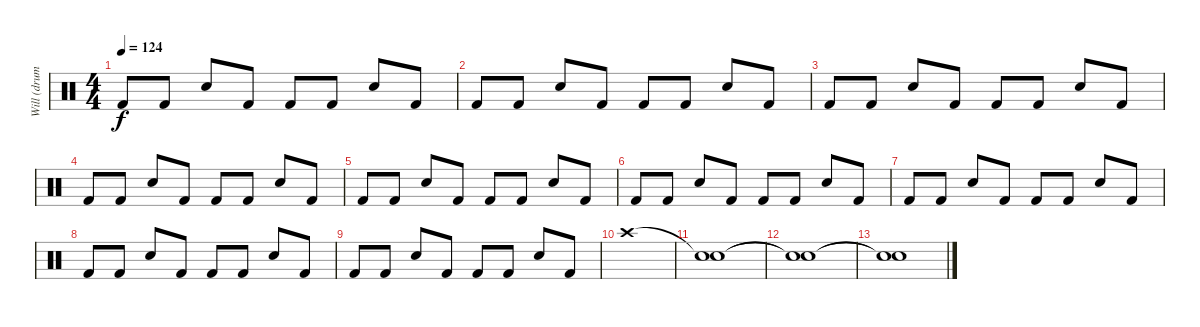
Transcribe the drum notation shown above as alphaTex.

\track ("Will (drums)" "Will (drum") {instrument percussion}
\staff {score}
\articulation defaults
\ts (4 4)
\tempo 124
\clef neutral
\ks c "Kick (hit) 2".8{dy f} "Kick (hit) 2".8 "Snare (hit) 2".8 "Kick (hit) 2".8 "Kick (hit) 2".8 "Kick (hit) 2".8 "Snare (hit) 2".8 "Kick (hit) 2".8
|
"Kick (hit) 2".8 "Kick (hit) 2".8 "Snare (hit) 2".8 "Kick (hit) 2".8 "Kick (hit) 2".8 "Kick (hit) 2".8 "Snare (hit) 2".8 "Kick (hit) 2".8 |
"Kick (hit) 2".8 "Kick (hit) 2".8 "Snare (hit) 2".8 "Kick (hit) 2".8 "Kick (hit) 2".8 "Kick (hit) 2".8 "Snare (hit) 2".8 "Kick (hit) 2".8 |
"Kick (hit) 2".8 "Kick (hit) 2".8 "Snare (hit) 2".8 "Kick (hit) 2".8 "Kick (hit) 2".8 "Kick (hit) 2".8 "Snare (hit) 2".8 "Kick (hit) 2".8 |
"Kick (hit) 2".8 "Kick (hit) 2".8 "Snare (hit) 2".8 "Kick (hit) 2".8 "Kick (hit) 2".8 "Kick (hit) 2".8 "Snare (hit) 2".8 "Kick (hit) 2".8 |
"Kick (hit) 2".8 "Kick (hit) 2".8 "Snare (hit) 2".8 "Kick (hit) 2".8 "Kick (hit) 2".8 "Kick (hit) 2".8 "Snare (hit) 2".8 "Kick (hit) 2".8 |
"Kick (hit) 2".8 "Kick (hit) 2".8 "Snare (hit) 2".8 "Kick (hit) 2".8 "Kick (hit) 2".8 "Kick (hit) 2".8 "Snare (hit) 2".8 "Kick (hit) 2".8 |
"Kick (hit) 2".8 "Kick (hit) 2".8 "Snare (hit) 2".8 "Kick (hit) 2".8 "Kick (hit) 2".8 "Kick (hit) 2".8 "Snare (hit) 2".8 "Kick (hit) 2".8 |
"Kick (hit) 2".8 "Kick (hit) 2".8 "Snare (hit) 2".8 "Kick (hit) 2".8 "Kick (hit) 2".8 "Kick (hit) 2".8 "Snare (hit) 2".8 "Kick (hit) 2".8 |
"Crash high (hit)".1 |
("Snare (hit)"{t} "Snare (hit)").1{volume 0} |
("Snare (hit)"{t} "Snare (hit)"{t}).1 |
("Snare (hit)"{t} "Snare (hit)"{t}).1
